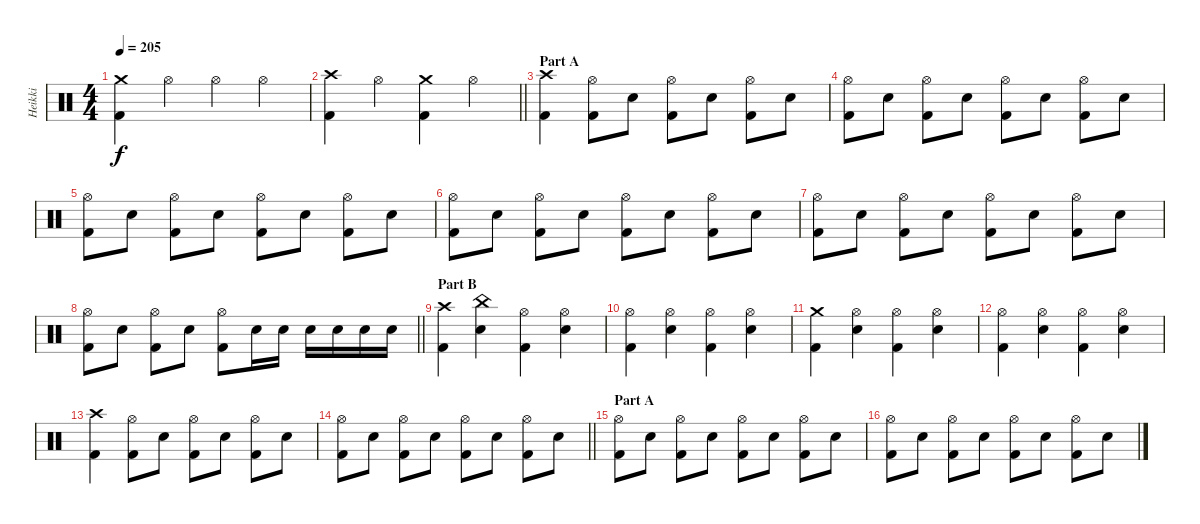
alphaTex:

\track ("Heikki" "Heikki") {instrument percussion}
\staff {score}
\articulation defaults
\ts (4 4)
\tempo 205
\clef neutral
\ks c
("Crash medium (hit)" "Kick (hit) 2").4{dy f} "Hi-Hat (open)".4 "Hi-Hat (open)".4 "Hi-Hat (open)".4 |
\barLineRight lightlight
("Crash high (hit)" "Kick (hit) 2").4 "Hi-Hat (open)".4 ("Crash medium (hit)" "Kick (hit) 2").4 "Hi-Hat (open)".4 |
\section ("" "Part A")
("Crash high (hit)" "Kick (hit) 2").4 ("Hi-Hat (open)" "Kick (hit) 2").8 "Electric Snare (hit)".8 ("Hi-Hat (open)" "Kick (hit) 2").8 "Electric Snare (hit)".8 ("Hi-Hat (open)" "Kick (hit) 2").8 "Electric Snare (hit)".8 |
("Hi-Hat (open)" "Kick (hit) 2").8 "Electric Snare (hit)".8 ("Hi-Hat (open)" "Kick (hit) 2").8 "Electric Snare (hit)".8 ("Hi-Hat (open)" "Kick (hit) 2").8 "Electric Snare (hit)".8 ("Hi-Hat (open)" "Kick (hit) 2").8 "Electric Snare (hit)".8 |
("Hi-Hat (open)" "Kick (hit) 2").8 "Electric Snare (hit)".8 ("Hi-Hat (open)" "Kick (hit) 2").8 "Electric Snare (hit)".8 ("Hi-Hat (open)" "Kick (hit) 2").8 "Electric Snare (hit)".8 ("Hi-Hat (open)" "Kick (hit) 2").8 "Electric Snare (hit)".8 |
("Hi-Hat (open)" "Kick (hit) 2").8 "Electric Snare (hit)".8 ("Hi-Hat (open)" "Kick (hit) 2").8 "Electric Snare (hit)".8 ("Hi-Hat (open)" "Kick (hit) 2").8 "Electric Snare (hit)".8 ("Hi-Hat (open)" "Kick (hit) 2").8 "Electric Snare (hit)".8 |
("Hi-Hat (open)" "Kick (hit) 2").8 "Electric Snare (hit)".8 ("Hi-Hat (open)" "Kick (hit) 2").8 "Electric Snare (hit)".8 ("Hi-Hat (open)" "Kick (hit) 2").8 "Electric Snare (hit)".8 ("Hi-Hat (open)" "Kick (hit) 2").8 "Electric Snare (hit)".8 |
\barLineRight lightlight
("Hi-Hat (open)" "Kick (hit) 2").8 "Electric Snare (hit)".8 ("Hi-Hat (open)" "Kick (hit) 2").8 "Electric Snare (hit)".8 ("Hi-Hat (open)" "Kick (hit) 2").8 "Electric Snare (hit)".16 "Electric Snare (hit)".16 "Electric Snare (hit)".16 "Electric Snare (hit)".16 "Electric Snare (hit)".16 "Electric Snare (hit)".16 |
\section ("" "Part B")
("Crash high (hit)" "Kick (hit) 2").4 ("China (hit)" "Electric Snare (hit)").4 ("Hi-Hat (open)" "Kick (hit) 2").4 ("Hi-Hat (open)" "Electric Snare (hit)").4 |
("Hi-Hat (open)" "Kick (hit) 2").4 ("Hi-Hat (open)" "Electric Snare (hit)").4 ("Hi-Hat (open)" "Kick (hit) 2").4 ("Hi-Hat (open)" "Electric Snare (hit)").4 |
("Crash medium (hit)" "Kick (hit) 2").4 ("Hi-Hat (open)" "Electric Snare (hit)").4 ("Hi-Hat (open)" "Kick (hit) 2").4 ("Hi-Hat (open)" "Electric Snare (hit)").4 |
("Hi-Hat (open)" "Kick (hit) 2").4 ("Hi-Hat (open)" "Electric Snare (hit)").4 ("Hi-Hat (open)" "Kick (hit) 2").4 ("Hi-Hat (open)" "Electric Snare (hit)").4 |
("Crash high (hit)" "Kick (hit) 2").4 ("Hi-Hat (open)" "Kick (hit) 2").8 "Electric Snare (hit)".8 ("Hi-Hat (open)" "Kick (hit) 2").8 "Electric Snare (hit)".8 ("Hi-Hat (open)" "Kick (hit) 2").8 "Electric Snare (hit)".8 |
\barLineRight lightlight
("Hi-Hat (open)" "Kick (hit) 2").8 "Electric Snare (hit)".8 ("Hi-Hat (open)" "Kick (hit) 2").8 "Electric Snare (hit)".8 ("Hi-Hat (open)" "Kick (hit) 2").8 "Electric Snare (hit)".8 ("Hi-Hat (open)" "Kick (hit) 2").8 "Electric Snare (hit)".8 |
\section ("" "Part A")
("Hi-Hat (open)" "Kick (hit) 2").8 "Electric Snare (hit)".8 ("Hi-Hat (open)" "Kick (hit) 2").8 "Electric Snare (hit)".8 ("Hi-Hat (open)" "Kick (hit) 2").8 "Electric Snare (hit)".8 ("Hi-Hat (open)" "Kick (hit) 2").8 "Electric Snare (hit)".8 |
("Hi-Hat (open)" "Kick (hit) 2").8 "Electric Snare (hit)".8 ("Hi-Hat (open)" "Kick (hit) 2").8 "Electric Snare (hit)".8 ("Hi-Hat (open)" "Kick (hit) 2").8 "Electric Snare (hit)".8 ("Hi-Hat (open)" "Kick (hit) 2").8 "Electric Snare (hit)".8
